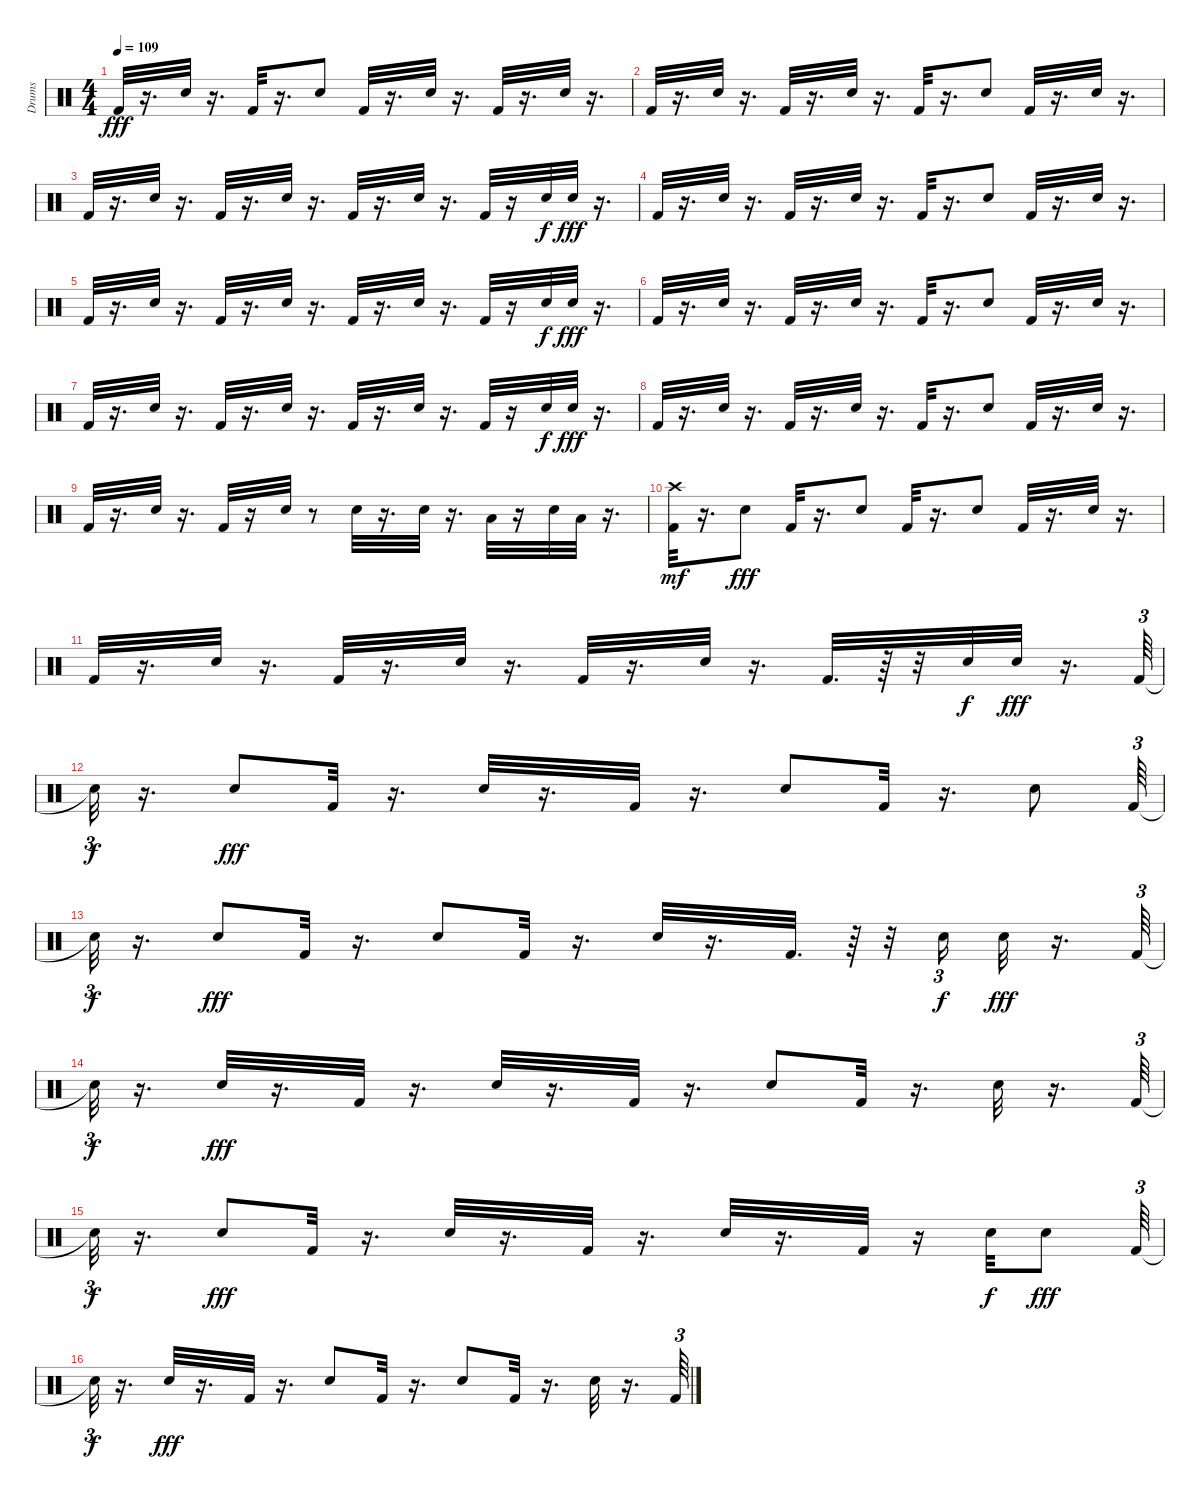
\track ("Drums" "Drums") {instrument percussion}
\staff {score}
\articulation defaults
\ts (4 4)
\tempo 109
\clef neutral
\ks c "Kick (hit) 2".32{dy fff}
r.16{d} "Snare (hit) 2".32 r.16{d} "Kick (hit) 2".32 r.16{d} "Snare (hit) 2".8 "Kick (hit) 2".32 r.16{d} "Snare (hit) 2".32 r.16{d} "Kick (hit) 2".32 r.16{d} "Snare (hit) 2".32 r.16{d} |
"Kick (hit) 2".32 r.16{d} "Snare (hit) 2".32 r.16{d} "Kick (hit) 2".32 r.16{d} "Snare (hit) 2".32 r.16{d} "Kick (hit) 2".32 r.16{d} "Snare (hit) 2".8 "Kick (hit) 2".32 r.16{d} "Snare (hit) 2".32 r.16{d} |
"Kick (hit) 2".32 r.16{d} "Snare (hit) 2".32 r.16{d} "Kick (hit) 2".32 r.16{d} "Snare (hit) 2".32 r.16{d} "Kick (hit) 2".32 r.16{d} "Snare (hit) 2".32 r.16{d} "Kick (hit) 2".32 r.16 "Snare (hit) 2".32{dy f} "Snare (hit) 2".32{dy fff} r.16{d} |
"Kick (hit) 2".32 r.16{d} "Snare (hit) 2".32 r.16{d} "Kick (hit) 2".32 r.16{d} "Snare (hit) 2".32 r.16{d} "Kick (hit) 2".32 r.16{d} "Snare (hit) 2".8 "Kick (hit) 2".32 r.16{d} "Snare (hit) 2".32 r.16{d} |
"Kick (hit) 2".32 r.16{d} "Snare (hit) 2".32 r.16{d} "Kick (hit) 2".32 r.16{d} "Snare (hit) 2".32 r.16{d} "Kick (hit) 2".32 r.16{d} "Snare (hit) 2".32 r.16{d} "Kick (hit) 2".32 r.16 "Snare (hit) 2".32{dy f} "Snare (hit) 2".32{dy fff} r.16{d} |
"Kick (hit) 2".32 r.16{d} "Snare (hit) 2".32 r.16{d} "Kick (hit) 2".32 r.16{d} "Snare (hit) 2".32 r.16{d} "Kick (hit) 2".32 r.16{d} "Snare (hit) 2".8 "Kick (hit) 2".32 r.16{d} "Snare (hit) 2".32 r.16{d} |
"Kick (hit) 2".32 r.16{d} "Snare (hit) 2".32 r.16{d} "Kick (hit) 2".32 r.16{d} "Snare (hit) 2".32 r.16{d} "Kick (hit) 2".32 r.16{d} "Snare (hit) 2".32 r.16{d} "Kick (hit) 2".32 r.16 "Snare (hit) 2".32{dy f} "Snare (hit) 2".32{dy fff} r.16{d} |
"Kick (hit) 2".32 r.16{d} "Snare (hit) 2".32 r.16{d} "Kick (hit) 2".32 r.16{d} "Snare (hit) 2".32 r.16{d} "Kick (hit) 2".32 r.16{d} "Snare (hit) 2".8 "Kick (hit) 2".32 r.16{d} "Snare (hit) 2".32 r.16{d} |
"Kick (hit) 2".32 r.16{d} "Snare (hit) 2".32 r.16{d} "Kick (hit) 2".32 r.16 "Snare (hit) 2".32 r.8 "Snare (hit) 2".32 r.16{d} "Snare (hit) 2".32 r.16{d} "Low Floor Tom (hit)".32 r.16 "Snare (hit) 2".32 "Low Tom (hit)".32 r.16{d} |
("Kick (hit) 2" "Crash high (hit)").32{dy mf} r.16{d} "Snare (hit) 2".8{dy fff} "Kick (hit) 2".32 r.16{d} "Snare (hit) 2".8 "Kick (hit) 2".32 r.16{d} "Snare (hit) 2".8 "Kick (hit) 2".32 r.16{d} "Snare (hit) 2".32 r.16{d} |
"Kick (hit) 2".32 r.16{d} "Snare (hit) 2".32 r.16{d} "Kick (hit) 2".32 r.16{d} "Snare (hit) 2".32 r.16{d} "Kick (hit) 2".32 r.16{d} "Snare (hit) 2".32 r.16{d} "Kick (hit) 2".32{d} r.64 r.32 "Snare (hit) 2".32{dy f} "Snare (hit) 2".32{dy fff} r.16{d} "Kick (hit) 2".64{tu (3 2)} |
"Snare (hit)"{t}.32{tu (3 2) dy f} r.16{d} "Snare (hit) 2".8{dy fff} "Kick (hit) 2".32 r.16{d} "Snare (hit) 2".32 r.16{d} "Kick (hit) 2".32 r.16{d} "Snare (hit) 2".8 "Kick (hit) 2".32 r.16{d} "Snare (hit) 2".8 "Kick (hit) 2".64{tu (3 2)} |
"Snare (hit)"{t}.32{tu (3 2) dy f} r.16{d} "Snare (hit) 2".8{dy fff} "Kick (hit) 2".32 r.16{d} "Snare (hit) 2".8 "Kick (hit) 2".32 r.16{d} "Snare (hit) 2".32 r.16{d} "Kick (hit) 2".32{d} r.64 r.32 "Snare (hit) 2".16{tu (3 2) dy f} "Snare (hit) 2".32{dy fff} r.16{d} "Kick (hit) 2".64{tu (3 2)} |
"Snare (hit)"{t}.32{tu (3 2) dy f} r.16{d} "Snare (hit) 2".32{dy fff} r.16{d} "Kick (hit) 2".32 r.16{d} "Snare (hit) 2".32 r.16{d} "Kick (hit) 2".32 r.16{d} "Snare (hit) 2".8 "Kick (hit) 2".32 r.16{d} "Snare (hit) 2".32 r.16{d} "Kick (hit) 2".64{tu (3 2)} |
"Snare (hit)"{t}.32{tu (3 2) dy f} r.16{d} "Snare (hit) 2".8{dy fff} "Kick (hit) 2".32 r.16{d} "Snare (hit) 2".32 r.16{d} "Kick (hit) 2".32 r.16{d} "Snare (hit) 2".32 r.16{d} "Kick (hit) 2".32 r.16 "Snare (hit) 2".32{dy f} "Snare (hit) 2".8{dy fff} "Kick (hit) 2".64{tu (3 2)} |
"Snare (hit)"{t}.32{tu (3 2) dy f} r.16{d} "Snare (hit) 2".32{dy fff} r.16{d} "Kick (hit) 2".32 r.16{d} "Snare (hit) 2".8 "Kick (hit) 2".32 r.16{d} "Snare (hit) 2".8 "Kick (hit) 2".32 r.16{d} "Snare (hit) 2".32 r.16{d} "Kick (hit) 2".64{tu (3 2)}
